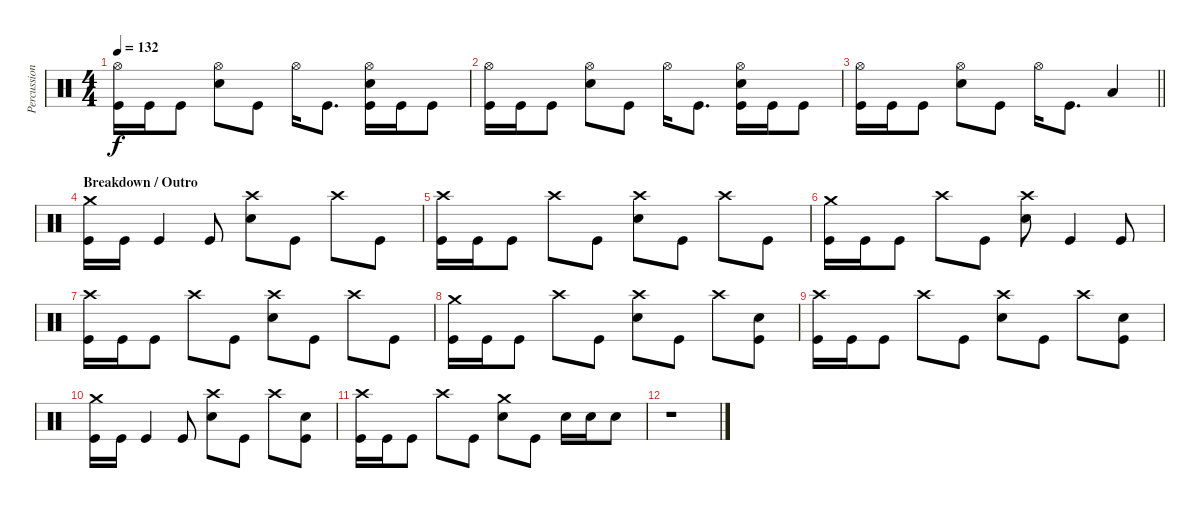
\track ("Percussion" "Percussion") {instrument percussion}
\staff {score}
\articulation defaults
\ts (4 4)
\tempo 132
\clef neutral
\ks c
("Hi-Hat (open)" "Kick (hit)").16{dy f} "Kick (hit)".16 "Kick (hit)".8 ("Hi-Hat (open)" "Electric Snare (hit)").8 "Kick (hit)".8 "Hi-Hat (open)".16 "Kick (hit)".8{d} ("Hi-Hat (open)" "Electric Snare (hit)" "Kick (hit)").16 "Kick (hit)".16 "Kick (hit)".8 |
("Hi-Hat (open)" "Kick (hit)").16 "Kick (hit)".16 "Kick (hit)".8 ("Hi-Hat (open)" "Electric Snare (hit)").8 "Kick (hit)".8 "Hi-Hat (open)".16 "Kick (hit)".8{d} ("Hi-Hat (open)" "Electric Snare (hit)" "Kick (hit)").16 "Kick (hit)".16 "Kick (hit)".8 |
\barLineRight lightlight
("Hi-Hat (open)" "Kick (hit)").16 "Kick (hit)".16 "Kick (hit)".8 ("Hi-Hat (open)" "Electric Snare (hit)").8 "Kick (hit)".8 "Hi-Hat (open)".16 "Kick (hit)".8{d} "Low Floor Tom (hit)".4 |
\section ("" "Breakdown / Outro")
("Crash medium (hit)" "Kick (hit)").16 "Kick (hit)".16 "Kick (hit)".4 "Kick (hit)".8 ("Crash high (hit)" "Electric Snare (hit)").8 "Kick (hit)".8 "Crash high (hit)".8 "Kick (hit)".8 |
("Crash high (hit)" "Kick (hit)").16 "Kick (hit)".16 "Kick (hit)".8 "Crash high (hit)".8 "Kick (hit)".8 ("Crash high (hit)" "Electric Snare (hit)").8 "Kick (hit)".8 "Crash high (hit)".8 "Kick (hit)".8 |
("Crash medium (hit)" "Kick (hit)").16 "Kick (hit)".16 "Kick (hit)".8 "Crash high (hit)".8 "Kick (hit)".8 ("Crash high (hit)" "Electric Snare (hit)").8 "Kick (hit)".4 "Kick (hit)".8 |
("Crash high (hit)" "Kick (hit)").16 "Kick (hit)".16 "Kick (hit)".8 "Crash high (hit)".8 "Kick (hit)".8 ("Crash high (hit)" "Electric Snare (hit)").8 "Kick (hit)".8 "Crash high (hit)".8 "Kick (hit)".8 |
("Crash medium (hit)" "Kick (hit)").16 "Kick (hit)".16 "Kick (hit)".8 "Crash high (hit)".8 "Kick (hit)".8 ("Crash high (hit)" "Electric Snare (hit)").8 "Kick (hit)".8 "Crash high (hit)".8 ("Electric Snare (hit)" "Kick (hit)").8 |
("Crash high (hit)" "Kick (hit)").16 "Kick (hit)".16 "Kick (hit)".8 "Crash high (hit)".8 "Kick (hit)".8 ("Crash high (hit)" "Electric Snare (hit)").8 "Kick (hit)".8 "Crash high (hit)".8 ("Electric Snare (hit)" "Kick (hit)").8 |
("Crash medium (hit)" "Kick (hit)").16 "Kick (hit)".16 "Kick (hit)".4 "Kick (hit)".8 ("Crash high (hit)" "Electric Snare (hit)").8 "Kick (hit)".8 "Crash high (hit)".8 ("Electric Snare (hit)" "Kick (hit)").8 |
("Crash high (hit)" "Kick (hit)").16 "Kick (hit)".16 "Kick (hit)".8 "Crash high (hit)".8 "Kick (hit)".8 ("Crash medium (hit)" "Electric Snare (hit)").8 "Kick (hit)".8 "Electric Snare (hit)".16 "Electric Snare (hit)".16 "Electric Snare (hit)".8 |
r.1
